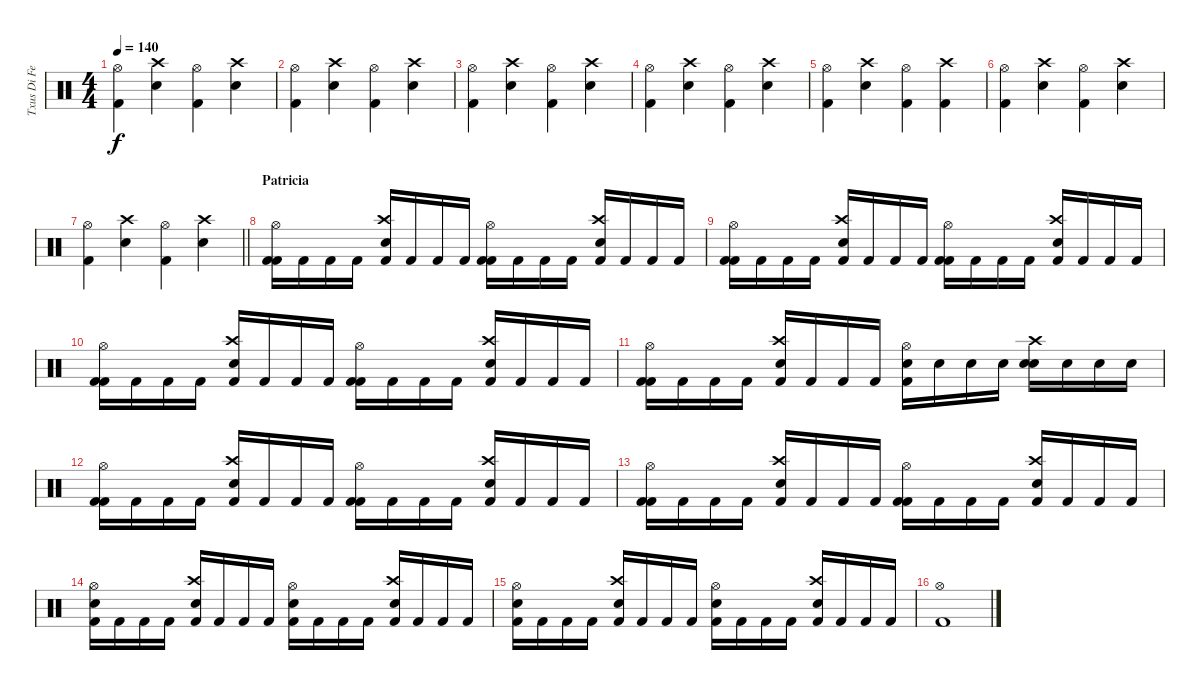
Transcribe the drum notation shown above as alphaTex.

\track ("Txus Di Fellatio" "Txus Di Fe") {instrument percussion}
\staff {score}
\articulation defaults
\ts (4 4)
\tempo 140
\clef neutral
\ks c
("Hi-Hat (open)" "Kick (hit) 2").4{dy f} ("Crash high (hit)" "Electric Snare (hit)").4 ("Hi-Hat (open)" "Kick (hit) 2").4 ("Crash high (hit)" "Electric Snare (hit)").4 |
("Hi-Hat (open)" "Kick (hit) 2").4 ("Crash high (hit)" "Electric Snare (hit)").4 ("Hi-Hat (open)" "Kick (hit) 2").4 ("Crash high (hit)" "Electric Snare (hit)").4 |
("Hi-Hat (open)" "Kick (hit) 2").4 ("Crash high (hit)" "Electric Snare (hit)").4 ("Hi-Hat (open)" "Kick (hit) 2").4 ("Crash high (hit)" "Electric Snare (hit)").4 |
("Hi-Hat (open)" "Kick (hit) 2").4 ("Crash high (hit)" "Electric Snare (hit)").4 ("Hi-Hat (open)" "Kick (hit) 2").4 ("Crash high (hit)" "Electric Snare (hit)").4 |
("Hi-Hat (open)" "Kick (hit) 2").4 ("Crash high (hit)" "Electric Snare (hit)").4 ("Hi-Hat (open)" "Kick (hit) 2").4 ("Crash high (hit)" "Kick (hit) 2").4 |
("Hi-Hat (open)" "Kick (hit) 2").4 ("Crash high (hit)" "Electric Snare (hit)").4 ("Hi-Hat (open)" "Kick (hit) 2").4 ("Crash high (hit)" "Electric Snare (hit)").4 |
\barLineRight lightlight
("Hi-Hat (open)" "Kick (hit) 2").4 ("Crash high (hit)" "Electric Snare (hit)").4 ("Hi-Hat (open)" "Kick (hit) 2").4 ("Crash high (hit)" "Electric Snare (hit)").4 |
\section ("" "Patricia")
("Hi-Hat (open)" "Kick (hit) 2" "Kick (hit) 2").16 "Kick (hit) 2".16 "Kick (hit) 2".16 "Kick (hit) 2".16 ("Crash high (hit)" "Electric Snare (hit)" "Kick (hit) 2").16 "Kick (hit) 2".16 "Kick (hit) 2".16 "Kick (hit) 2".16 ("Hi-Hat (open)" "Kick (hit) 2" "Kick (hit) 2").16 "Kick (hit) 2".16 "Kick (hit) 2".16 "Kick (hit) 2".16 ("Crash high (hit)" "Electric Snare (hit)" "Kick (hit) 2").16 "Kick (hit) 2".16 "Kick (hit) 2".16 "Kick (hit) 2".16 |
("Hi-Hat (open)" "Kick (hit) 2" "Kick (hit) 2").16 "Kick (hit) 2".16 "Kick (hit) 2".16 "Kick (hit) 2".16 ("Crash high (hit)" "Electric Snare (hit)" "Kick (hit) 2").16 "Kick (hit) 2".16 "Kick (hit) 2".16 "Kick (hit) 2".16 ("Hi-Hat (open)" "Kick (hit) 2" "Kick (hit) 2").16 "Kick (hit) 2".16 "Kick (hit) 2".16 "Kick (hit) 2".16 ("Crash high (hit)" "Electric Snare (hit)" "Kick (hit) 2").16 "Kick (hit) 2".16 "Kick (hit) 2".16 "Kick (hit) 2".16 |
("Hi-Hat (open)" "Kick (hit) 2" "Kick (hit) 2").16 "Kick (hit) 2".16 "Kick (hit) 2".16 "Kick (hit) 2".16 ("Crash high (hit)" "Electric Snare (hit)" "Kick (hit) 2").16 "Kick (hit) 2".16 "Kick (hit) 2".16 "Kick (hit) 2".16 ("Hi-Hat (open)" "Kick (hit) 2" "Kick (hit) 2").16 "Kick (hit) 2".16 "Kick (hit) 2".16 "Kick (hit) 2".16 ("Crash high (hit)" "Electric Snare (hit)" "Kick (hit) 2").16 "Kick (hit) 2".16 "Kick (hit) 2".16 "Kick (hit) 2".16 |
("Hi-Hat (open)" "Kick (hit) 2" "Kick (hit) 2").16 "Kick (hit) 2".16 "Kick (hit) 2".16 "Kick (hit) 2".16 ("Crash high (hit)" "Electric Snare (hit)" "Kick (hit) 2").16 "Kick (hit) 2".16 "Kick (hit) 2".16 "Kick (hit) 2".16 ("Hi-Hat (open)" "Kick (hit) 2" "Electric Snare (hit)").16 "Electric Snare (hit)".16 "Electric Snare (hit)".16 "Electric Snare (hit)".16 ("Crash high (hit)" "Electric Snare (hit)" "Electric Snare (hit)").16 "Electric Snare (hit)".16 "Electric Snare (hit)".16 "Electric Snare (hit)".16 |
("Hi-Hat (open)" "Kick (hit) 2" "Kick (hit) 2").16 "Kick (hit) 2".16 "Kick (hit) 2".16 "Kick (hit) 2".16 ("Crash high (hit)" "Electric Snare (hit)" "Kick (hit) 2").16 "Kick (hit) 2".16 "Kick (hit) 2".16 "Kick (hit) 2".16 ("Hi-Hat (open)" "Kick (hit) 2" "Kick (hit) 2").16 "Kick (hit) 2".16 "Kick (hit) 2".16 "Kick (hit) 2".16 ("Crash high (hit)" "Electric Snare (hit)" "Kick (hit) 2").16 "Kick (hit) 2".16 "Kick (hit) 2".16 "Kick (hit) 2".16 |
("Hi-Hat (open)" "Kick (hit) 2" "Kick (hit) 2").16 "Kick (hit) 2".16 "Kick (hit) 2".16 "Kick (hit) 2".16 ("Crash high (hit)" "Electric Snare (hit)" "Kick (hit) 2").16 "Kick (hit) 2".16 "Kick (hit) 2".16 "Kick (hit) 2".16 ("Hi-Hat (open)" "Kick (hit) 2" "Kick (hit) 2").16 "Kick (hit) 2".16 "Kick (hit) 2".16 "Kick (hit) 2".16 ("Crash high (hit)" "Electric Snare (hit)" "Kick (hit) 2").16 "Kick (hit) 2".16 "Kick (hit) 2".16 "Kick (hit) 2".16 |
("Hi-Hat (open)" "Electric Snare (hit)" "Kick (hit) 2").16 "Kick (hit) 2".16 "Kick (hit) 2".16 "Kick (hit) 2".16 ("Crash high (hit)" "Electric Snare (hit)" "Kick (hit) 2").16 "Kick (hit) 2".16 "Kick (hit) 2".16 "Kick (hit) 2".16 ("Hi-Hat (open)" "Electric Snare (hit)" "Kick (hit) 2").16 "Kick (hit) 2".16 "Kick (hit) 2".16 "Kick (hit) 2".16 ("Crash high (hit)" "Electric Snare (hit)" "Kick (hit) 2").16 "Kick (hit) 2".16 "Kick (hit) 2".16 "Kick (hit) 2".16 |
("Hi-Hat (open)" "Electric Snare (hit)" "Kick (hit) 2").16 "Kick (hit) 2".16 "Kick (hit) 2".16 "Kick (hit) 2".16 ("Crash high (hit)" "Electric Snare (hit)" "Kick (hit) 2").16 "Kick (hit) 2".16 "Kick (hit) 2".16 "Kick (hit) 2".16 ("Hi-Hat (open)" "Electric Snare (hit)" "Kick (hit) 2").16 "Kick (hit) 2".16 "Kick (hit) 2".16 "Kick (hit) 2".16 ("Crash high (hit)" "Electric Snare (hit)" "Kick (hit) 2").16 "Kick (hit) 2".16 "Kick (hit) 2".16 "Kick (hit) 2".16 |
("Hi-Hat (open)" "Kick (hit) 2").1
